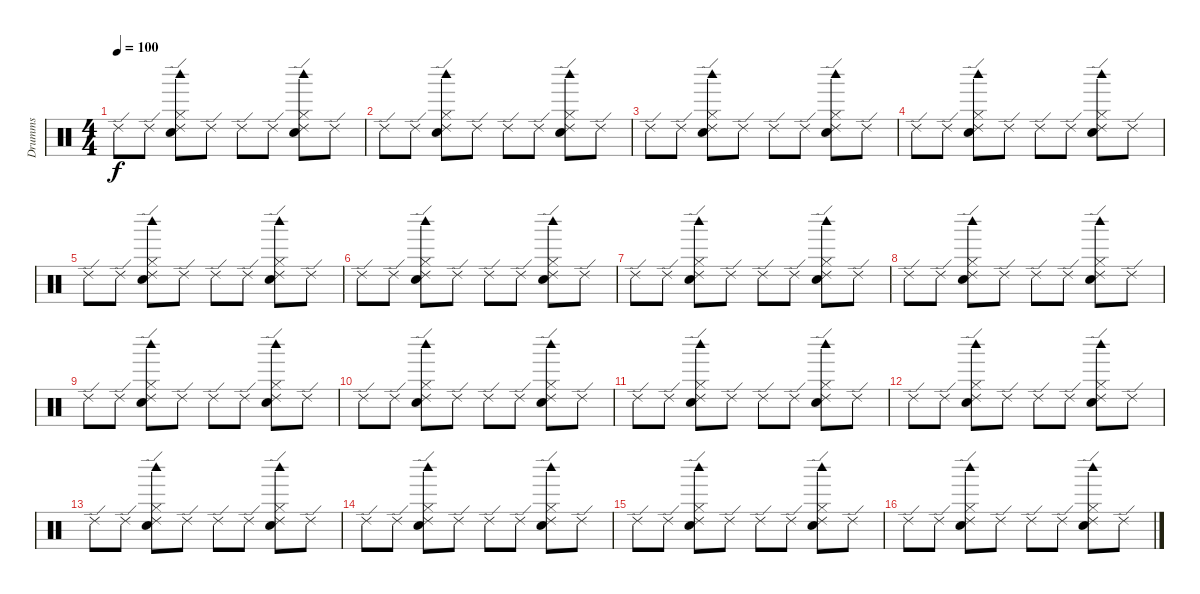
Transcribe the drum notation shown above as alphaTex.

\track ("Drumms" "Drumms") {instrument percussion}
\staff {score}
\articulation defaults
\ts (4 4)
\tempo 100
\clef neutral
\ks c "Ride (edge) 2".8{dy f} "Ride (edge) 2".8
("Electric Snare (hit)" "Ride (edge) 2" "Hi-Hat (closed)" "Woodblock high (hit)").8 "Ride (edge) 2".8 "Ride (edge) 2".8 "Ride (edge) 2".8 ("Electric Snare (hit)" "Ride (edge) 2" "Hi-Hat (closed)" "Woodblock high (hit)").8 "Ride (edge) 2".8 |
"Ride (edge) 2".8 "Ride (edge) 2".8 ("Electric Snare (hit)" "Ride (edge) 2" "Hi-Hat (closed)" "Woodblock high (hit)").8 "Ride (edge) 2".8 "Ride (edge) 2".8 "Ride (edge) 2".8 ("Electric Snare (hit)" "Ride (edge) 2" "Hi-Hat (closed)" "Woodblock high (hit)").8 "Ride (edge) 2".8 |
"Ride (edge) 2".8 "Ride (edge) 2".8 ("Electric Snare (hit)" "Ride (edge) 2" "Hi-Hat (closed)" "Woodblock high (hit)").8 "Ride (edge) 2".8 "Ride (edge) 2".8 "Ride (edge) 2".8 ("Electric Snare (hit)" "Ride (edge) 2" "Hi-Hat (closed)" "Woodblock high (hit)").8 "Ride (edge) 2".8 |
"Ride (edge) 2".8 "Ride (edge) 2".8 ("Electric Snare (hit)" "Ride (edge) 2" "Hi-Hat (closed)" "Woodblock high (hit)").8 "Ride (edge) 2".8 "Ride (edge) 2".8 "Ride (edge) 2".8 ("Electric Snare (hit)" "Ride (edge) 2" "Hi-Hat (closed)" "Woodblock high (hit)").8 "Ride (edge) 2".8 |
"Ride (edge) 2".8 "Ride (edge) 2".8 ("Electric Snare (hit)" "Ride (edge) 2" "Hi-Hat (closed)" "Woodblock high (hit)").8 "Ride (edge) 2".8 "Ride (edge) 2".8 "Ride (edge) 2".8 ("Electric Snare (hit)" "Ride (edge) 2" "Hi-Hat (closed)" "Woodblock high (hit)").8 "Ride (edge) 2".8 |
"Ride (edge) 2".8 "Ride (edge) 2".8 ("Electric Snare (hit)" "Ride (edge) 2" "Woodblock high (hit)" "Hi-Hat (closed)").8 "Ride (edge) 2".8 "Ride (edge) 2".8 "Ride (edge) 2".8 ("Electric Snare (hit)" "Ride (edge) 2" "Hi-Hat (closed)" "Woodblock high (hit)").8 "Ride (edge) 2".8 |
"Ride (edge) 2".8 "Ride (edge) 2".8 ("Electric Snare (hit)" "Ride (edge) 2" "Hi-Hat (closed)" "Woodblock high (hit)").8 "Ride (edge) 2".8 "Ride (edge) 2".8 "Ride (edge) 2".8 ("Electric Snare (hit)" "Ride (edge) 2" "Hi-Hat (closed)" "Woodblock high (hit)").8 "Ride (edge) 2".8 |
"Ride (edge) 2".8 "Ride (edge) 2".8 ("Electric Snare (hit)" "Ride (edge) 2" "Woodblock high (hit)" "Hi-Hat (closed)").8 "Ride (edge) 2".8 "Ride (edge) 2".8 "Ride (edge) 2".8 ("Electric Snare (hit)" "Ride (edge) 2" "Hi-Hat (closed)" "Woodblock high (hit)").8 "Ride (edge) 2".8 |
"Ride (edge) 2".8 "Ride (edge) 2".8 ("Electric Snare (hit)" "Ride (edge) 2" "Woodblock high (hit)" "Hi-Hat (closed)").8 "Ride (edge) 2".8 "Ride (edge) 2".8 "Ride (edge) 2".8 ("Electric Snare (hit)" "Ride (edge) 2" "Hi-Hat (closed)" "Woodblock high (hit)").8 "Ride (edge) 2".8 |
"Ride (edge) 2".8 "Ride (edge) 2".8 ("Electric Snare (hit)" "Ride (edge) 2" "Woodblock high (hit)" "Hi-Hat (closed)").8 "Ride (edge) 2".8 "Ride (edge) 2".8 "Ride (edge) 2".8 ("Electric Snare (hit)" "Ride (edge) 2" "Hi-Hat (closed)" "Woodblock high (hit)").8 "Ride (edge) 2".8 |
"Ride (edge) 2".8 "Ride (edge) 2".8 ("Electric Snare (hit)" "Ride (edge) 2" "Woodblock high (hit)" "Hi-Hat (closed)").8 "Ride (edge) 2".8 "Ride (edge) 2".8 "Ride (edge) 2".8 ("Electric Snare (hit)" "Ride (edge) 2" "Hi-Hat (closed)" "Woodblock high (hit)").8 "Ride (edge) 2".8 |
"Ride (edge) 2".8 "Ride (edge) 2".8 ("Electric Snare (hit)" "Ride (edge) 2" "Woodblock high (hit)" "Hi-Hat (closed)").8 "Ride (edge) 2".8 "Ride (edge) 2".8 "Ride (edge) 2".8 ("Electric Snare (hit)" "Ride (edge) 2" "Hi-Hat (closed)" "Woodblock high (hit)").8 "Ride (edge) 2".8 |
"Ride (edge) 2".8 "Ride (edge) 2".8 ("Electric Snare (hit)" "Ride (edge) 2" "Woodblock high (hit)" "Hi-Hat (closed)").8 "Ride (edge) 2".8 "Ride (edge) 2".8 "Ride (edge) 2".8 ("Electric Snare (hit)" "Ride (edge) 2" "Hi-Hat (closed)" "Woodblock high (hit)").8 "Ride (edge) 2".8 |
"Ride (edge) 2".8 "Ride (edge) 2".8 ("Electric Snare (hit)" "Ride (edge) 2" "Woodblock high (hit)" "Hi-Hat (closed)").8 "Ride (edge) 2".8 "Ride (edge) 2".8 "Ride (edge) 2".8 ("Electric Snare (hit)" "Ride (edge) 2" "Hi-Hat (closed)" "Woodblock high (hit)").8 "Ride (edge) 2".8 |
"Ride (edge) 2".8 "Ride (edge) 2".8 ("Electric Snare (hit)" "Ride (edge) 2" "Woodblock high (hit)" "Hi-Hat (closed)").8 "Ride (edge) 2".8 "Ride (edge) 2".8 "Ride (edge) 2".8 ("Electric Snare (hit)" "Ride (edge) 2" "Hi-Hat (closed)" "Woodblock high (hit)").8 "Ride (edge) 2".8 |
"Ride (edge) 2".8 "Ride (edge) 2".8 ("Electric Snare (hit)" "Ride (edge) 2" "Woodblock high (hit)" "Hi-Hat (closed)").8 "Ride (edge) 2".8 "Ride (edge) 2".8 "Ride (edge) 2".8 ("Electric Snare (hit)" "Ride (edge) 2" "Hi-Hat (closed)" "Woodblock high (hit)").8 "Ride (edge) 2".8
